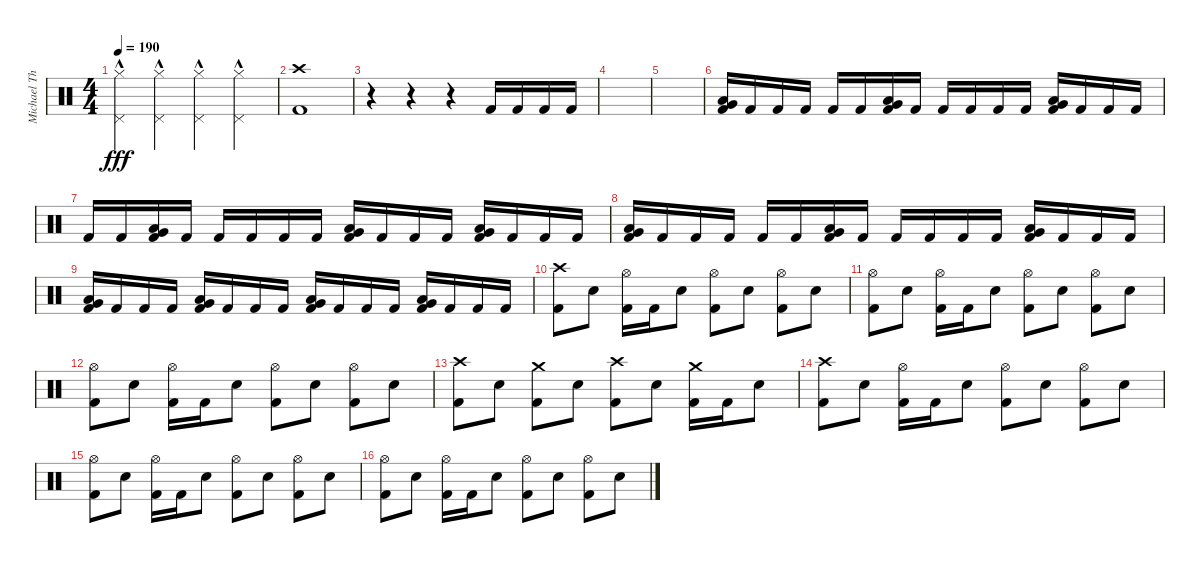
\track ("Michael Thomas Жжёт!" "Michael Th") {instrument percussion}
\staff {score}
\articulation defaults
\ts (4 4)
\tempo 190
\clef neutral
\ks c
("Hi-Hat (closed)"{hac} "Pedal Hi-Hat (hit)"{hac}).4{dy fff} ("Hi-Hat (closed)"{hac} "Pedal Hi-Hat (hit)"{hac}).4 ("Hi-Hat (closed)"{hac} "Pedal Hi-Hat (hit)"{hac}).4 ("Hi-Hat (closed)"{hac} "Pedal Hi-Hat (hit)"{hac}).4 |
("Crash high (hit)" "Kick (hit) 2").1 |
r.4 r.4 r.4 "Kick (hit) 2".16 "Kick (hit) 2".16 "Kick (hit) 2".16 "Kick (hit) 2".16 |
|
|
("Low Tom (hit)" "Very Low Tom (hit)" "Kick (hit) 2").16 "Kick (hit) 2".16 "Kick (hit) 2".16 "Kick (hit) 2".16 "Kick (hit) 2".16 "Kick (hit) 2".16 ("Low Tom (hit)" "Very Low Tom (hit)" "Kick (hit) 2").16 "Kick (hit) 2".16 "Kick (hit) 2".16 "Kick (hit) 2".16 "Kick (hit) 2".16 "Kick (hit) 2".16 ("Low Tom (hit)" "Very Low Tom (hit)" "Kick (hit) 2").16 "Kick (hit) 2".16 "Kick (hit) 2".16 "Kick (hit) 2".16 |
"Kick (hit) 2".16 "Kick (hit) 2".16 ("Low Tom (hit)" "Very Low Tom (hit)" "Kick (hit) 2").16 "Kick (hit) 2".16 "Kick (hit) 2".16 "Kick (hit) 2".16 "Kick (hit) 2".16 "Kick (hit) 2".16 ("Low Tom (hit)" "Very Low Tom (hit)" "Kick (hit) 2").16 "Kick (hit) 2".16 "Kick (hit) 2".16 "Kick (hit) 2".16 ("Low Tom (hit)" "Very Low Tom (hit)" "Kick (hit) 2").16 "Kick (hit) 2".16 "Kick (hit) 2".16 "Kick (hit) 2".16 |
("Low Tom (hit)" "Very Low Tom (hit)" "Kick (hit) 2").16 "Kick (hit) 2".16 "Kick (hit) 2".16 "Kick (hit) 2".16 "Kick (hit) 2".16 "Kick (hit) 2".16 ("Low Tom (hit)" "Very Low Tom (hit)" "Kick (hit) 2").16 "Kick (hit) 2".16 "Kick (hit) 2".16 "Kick (hit) 2".16 "Kick (hit) 2".16 "Kick (hit) 2".16 ("Low Tom (hit)" "Very Low Tom (hit)" "Kick (hit) 2").16 "Kick (hit) 2".16 "Kick (hit) 2".16 "Kick (hit) 2".16 |
("Low Tom (hit)" "Very Low Tom (hit)" "Kick (hit) 2").16 "Kick (hit) 2".16 "Kick (hit) 2".16 "Kick (hit) 2".16 ("Low Tom (hit)" "Very Low Tom (hit)" "Kick (hit) 2").16 "Kick (hit) 2".16 "Kick (hit) 2".16 "Kick (hit) 2".16 ("Low Tom (hit)" "Very Low Tom (hit)" "Kick (hit) 2").16 "Kick (hit) 2".16 "Kick (hit) 2".16 "Kick (hit) 2".16 ("Low Tom (hit)" "Very Low Tom (hit)" "Kick (hit) 2").16 "Kick (hit) 2".16 "Kick (hit) 2".16 "Kick (hit) 2".16 |
("Crash high (hit)" "Kick (hit) 2").8 "Electric Snare (hit)".8 ("Hi-Hat (open)" "Kick (hit) 2").16 "Kick (hit) 2".16 "Electric Snare (hit)".8 ("Hi-Hat (open)" "Kick (hit) 2").8 "Electric Snare (hit)".8 ("Hi-Hat (open)" "Kick (hit) 2").8 "Electric Snare (hit)".8 |
("Hi-Hat (open)" "Kick (hit) 2").8 "Electric Snare (hit)".8 ("Hi-Hat (open)" "Kick (hit) 2").16 "Kick (hit) 2".16 "Electric Snare (hit)".8 ("Hi-Hat (open)" "Kick (hit) 2").8 "Electric Snare (hit)".8 ("Hi-Hat (open)" "Kick (hit) 2").8 "Electric Snare (hit)".8 |
("Hi-Hat (open)" "Kick (hit) 2").8 "Electric Snare (hit)".8 ("Hi-Hat (open)" "Kick (hit) 2").16 "Kick (hit) 2".16 "Electric Snare (hit)".8 ("Hi-Hat (open)" "Kick (hit) 2").8 "Electric Snare (hit)".8 ("Hi-Hat (open)" "Kick (hit) 2").8 "Electric Snare (hit)".8 |
("Crash high (hit)" "Kick (hit) 2").8 "Electric Snare (hit)".8 ("Crash medium (hit)" "Kick (hit) 2").8 "Electric Snare (hit)".8 ("Crash high (hit)" "Kick (hit) 2").8 "Electric Snare (hit)".8 ("Crash medium (hit)" "Kick (hit) 2").16 "Kick (hit) 2".16 "Electric Snare (hit)".8 |
("Crash high (hit)" "Kick (hit) 2").8 "Electric Snare (hit)".8 ("Hi-Hat (open)" "Kick (hit) 2").16 "Kick (hit) 2".16 "Electric Snare (hit)".8 ("Hi-Hat (open)" "Kick (hit) 2").8 "Electric Snare (hit)".8 ("Hi-Hat (open)" "Kick (hit) 2").8 "Electric Snare (hit)".8 |
("Hi-Hat (open)" "Kick (hit) 2").8 "Electric Snare (hit)".8 ("Hi-Hat (open)" "Kick (hit) 2").16 "Kick (hit) 2".16 "Electric Snare (hit)".8 ("Hi-Hat (open)" "Kick (hit) 2").8 "Electric Snare (hit)".8 ("Hi-Hat (open)" "Kick (hit) 2").8 "Electric Snare (hit)".8 |
("Hi-Hat (open)" "Kick (hit) 2").8 "Electric Snare (hit)".8 ("Hi-Hat (open)" "Kick (hit) 2").16 "Kick (hit) 2".16 "Electric Snare (hit)".8 ("Hi-Hat (open)" "Kick (hit) 2").8 "Electric Snare (hit)".8 ("Hi-Hat (open)" "Kick (hit) 2").8 "Electric Snare (hit)".8
